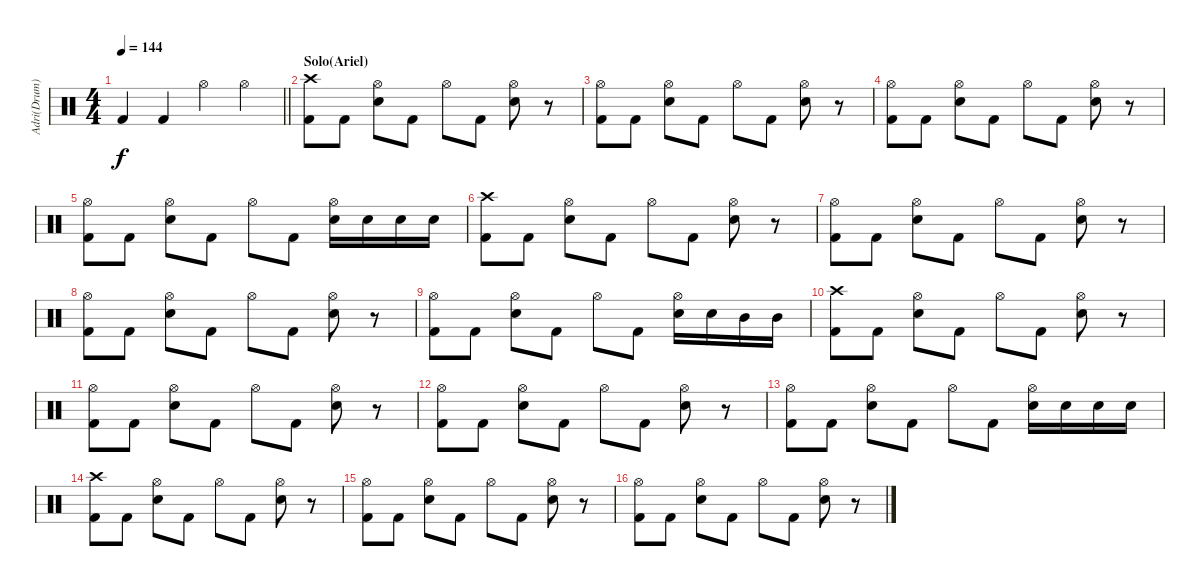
\track ("Adri(Drum)" "Adri(Drum)") {instrument percussion}
\staff {score}
\articulation defaults
\ts (4 4)
\tempo 144
\clef neutral
\barLineRight lightlight
\ks c "Kick (hit) 2".4{dy f} "Kick (hit) 2".4 "Hi-Hat (open)".4 "Hi-Hat (open)".4
|
\section ("" "Solo(Ariel)")
("Crash high (hit)" "Kick (hit) 2").8 "Kick (hit) 2".8 ("Hi-Hat (open)" "Electric Snare (hit)").8 "Kick (hit) 2".8 "Hi-Hat (open)".8 "Kick (hit) 2".8 ("Hi-Hat (open)" "Electric Snare (hit)").8 r.8 |
("Hi-Hat (open)" "Kick (hit) 2").8 "Kick (hit) 2".8 ("Hi-Hat (open)" "Electric Snare (hit)").8 "Kick (hit) 2".8 "Hi-Hat (open)".8 "Kick (hit) 2".8 ("Hi-Hat (open)" "Electric Snare (hit)").8 r.8 |
("Hi-Hat (open)" "Kick (hit) 2").8 "Kick (hit) 2".8 ("Hi-Hat (open)" "Electric Snare (hit)").8 "Kick (hit) 2".8 "Hi-Hat (open)".8 "Kick (hit) 2".8 ("Hi-Hat (open)" "Electric Snare (hit)").8 r.8 |
("Hi-Hat (open)" "Kick (hit) 2").8 "Kick (hit) 2".8 ("Hi-Hat (open)" "Electric Snare (hit)").8 "Kick (hit) 2".8 "Hi-Hat (open)".8 "Kick (hit) 2".8 ("Hi-Hat (open)" "Electric Snare (hit)").16 "Electric Snare (hit)".16 "Electric Snare (hit)".16 "Electric Snare (hit)".16 |
("Crash high (hit)" "Kick (hit) 2").8 "Kick (hit) 2".8 ("Hi-Hat (open)" "Electric Snare (hit)").8 "Kick (hit) 2".8 "Hi-Hat (open)".8 "Kick (hit) 2".8 ("Hi-Hat (open)" "Electric Snare (hit)").8 r.8 |
("Hi-Hat (open)" "Kick (hit) 2").8 "Kick (hit) 2".8 ("Hi-Hat (open)" "Electric Snare (hit)").8 "Kick (hit) 2".8 "Hi-Hat (open)".8 "Kick (hit) 2".8 ("Hi-Hat (open)" "Electric Snare (hit)").8 r.8 |
("Hi-Hat (open)" "Kick (hit) 2").8 "Kick (hit) 2".8 ("Hi-Hat (open)" "Electric Snare (hit)").8 "Kick (hit) 2".8 "Hi-Hat (open)".8 "Kick (hit) 2".8 ("Hi-Hat (open)" "Electric Snare (hit)").8 r.8 |
("Hi-Hat (open)" "Kick (hit) 2").8 "Kick (hit) 2".8 ("Hi-Hat (open)" "Electric Snare (hit)").8 "Kick (hit) 2".8 "Hi-Hat (open)".8 "Kick (hit) 2".8 ("Hi-Hat (open)" "Electric Snare (hit)").16 "Electric Snare (hit)".16 "Mid Tom (hit)".16 "Mid Tom (hit)".16 |
("Crash high (hit)" "Kick (hit) 2").8 "Kick (hit) 2".8 ("Hi-Hat (open)" "Electric Snare (hit)").8 "Kick (hit) 2".8 "Hi-Hat (open)".8 "Kick (hit) 2".8 ("Hi-Hat (open)" "Electric Snare (hit)").8 r.8 |
("Hi-Hat (open)" "Kick (hit) 2").8 "Kick (hit) 2".8 ("Hi-Hat (open)" "Electric Snare (hit)").8 "Kick (hit) 2".8 "Hi-Hat (open)".8 "Kick (hit) 2".8 ("Hi-Hat (open)" "Electric Snare (hit)").8 r.8 |
("Hi-Hat (open)" "Kick (hit) 2").8 "Kick (hit) 2".8 ("Hi-Hat (open)" "Electric Snare (hit)").8 "Kick (hit) 2".8 "Hi-Hat (open)".8 "Kick (hit) 2".8 ("Hi-Hat (open)" "Electric Snare (hit)").8 r.8 |
("Hi-Hat (open)" "Kick (hit) 2").8 "Kick (hit) 2".8 ("Hi-Hat (open)" "Electric Snare (hit)").8 "Kick (hit) 2".8 "Hi-Hat (open)".8 "Kick (hit) 2".8 ("Hi-Hat (open)" "Electric Snare (hit)").16 "Electric Snare (hit)".16 "Electric Snare (hit)".16 "Electric Snare (hit)".16 |
("Crash high (hit)" "Kick (hit) 2").8 "Kick (hit) 2".8 ("Hi-Hat (open)" "Electric Snare (hit)").8 "Kick (hit) 2".8 "Hi-Hat (open)".8 "Kick (hit) 2".8 ("Hi-Hat (open)" "Electric Snare (hit)").8 r.8 |
("Hi-Hat (open)" "Kick (hit) 2").8 "Kick (hit) 2".8 ("Hi-Hat (open)" "Electric Snare (hit)").8 "Kick (hit) 2".8 "Hi-Hat (open)".8 "Kick (hit) 2".8 ("Hi-Hat (open)" "Electric Snare (hit)").8 r.8 |
("Hi-Hat (open)" "Kick (hit) 2").8 "Kick (hit) 2".8 ("Hi-Hat (open)" "Electric Snare (hit)").8 "Kick (hit) 2".8 "Hi-Hat (open)".8 "Kick (hit) 2".8 ("Hi-Hat (open)" "Electric Snare (hit)").8 r.8
